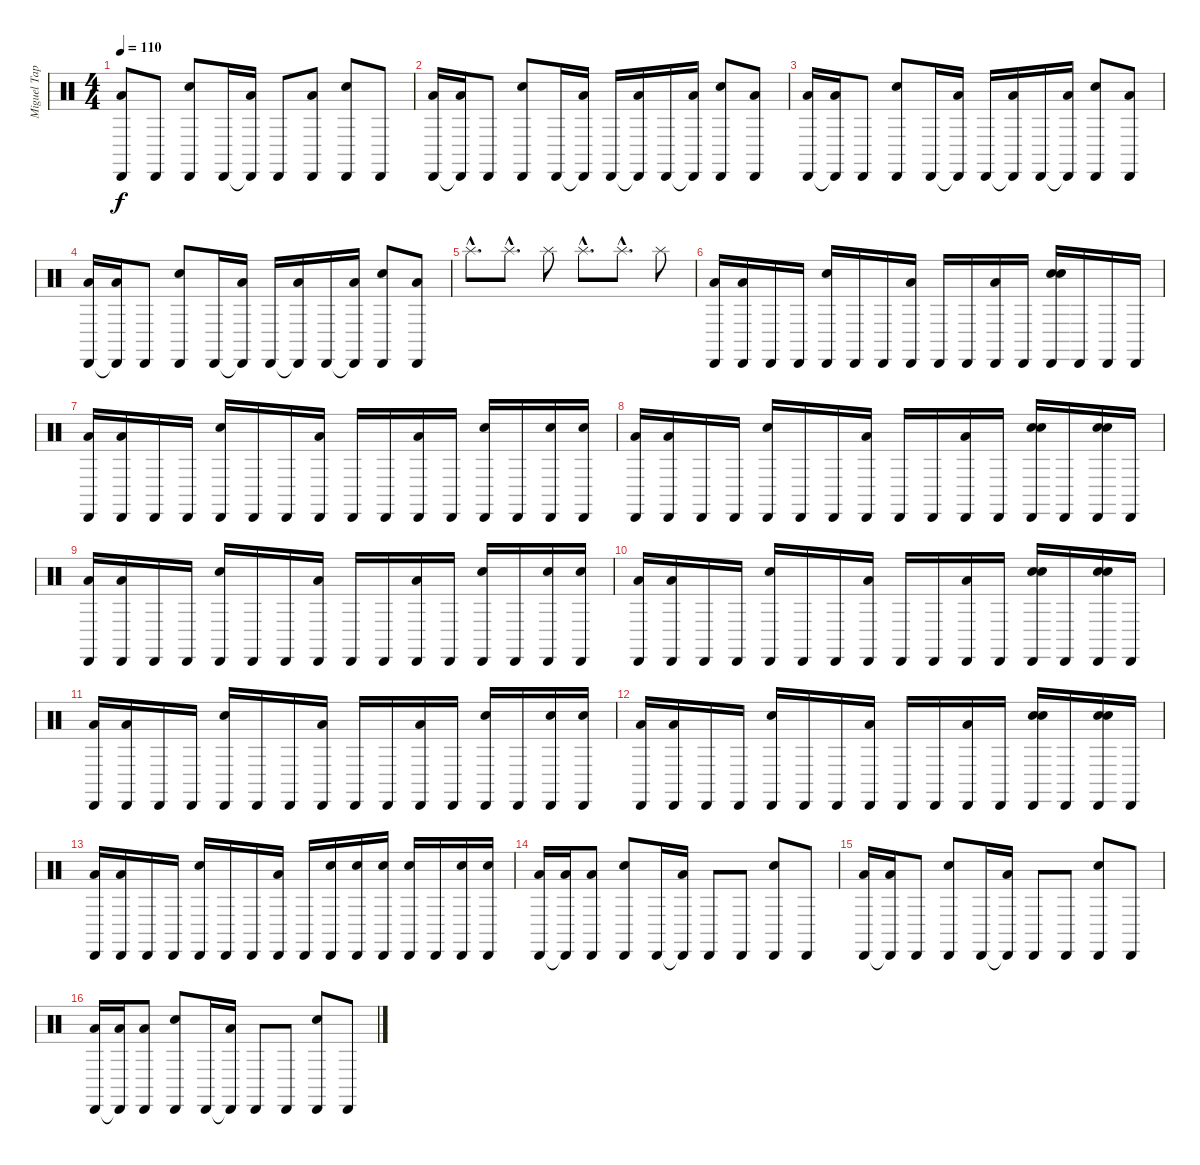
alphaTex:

\track ("Miguel Tapia (Bateria)" "Miguel Tap") {instrument percussion}
\staff {score}
\articulation defaults
\ts (4 4)
\tempo 110
\clef neutral
\ks c
("Cabasa (hit)" "Low Tom (hit)").8{dy f} "Cabasa (hit)".8 ("Cabasa (hit)" "Snare (hit) 2").8 "Cabasa (hit)".16 ("Cabasa (hit)"{t} "Low Tom (hit)").16 "Cabasa (hit)".8 ("Cabasa (hit)" "Low Tom (hit)").8 ("Cabasa (hit)" "Snare (hit) 2").8 "Cabasa (hit)".8 |
("Cabasa (hit)" "Low Tom (hit)").16 ("Cabasa (hit)"{t} "Low Tom (hit)").16 "Cabasa (hit)".8 ("Cabasa (hit)" "Snare (hit) 2").8 "Cabasa (hit)".16 ("Cabasa (hit)"{t} "Low Tom (hit)").16 "Cabasa (hit)".16 ("Cabasa (hit)"{t} "Low Tom (hit)").16 "Cabasa (hit)".16 ("Cabasa (hit)"{t} "Low Tom (hit)").16 ("Cabasa (hit)" "Snare (hit) 2").8 ("Cabasa (hit)" "Low Tom (hit)").8 |
("Cabasa (hit)" "Low Tom (hit)").16 ("Cabasa (hit)"{t} "Low Tom (hit)").16 "Cabasa (hit)".8 ("Cabasa (hit)" "Snare (hit) 2").8 "Cabasa (hit)".16 ("Cabasa (hit)"{t} "Low Tom (hit)").16 "Cabasa (hit)".16 ("Cabasa (hit)"{t} "Low Tom (hit)").16 "Cabasa (hit)".16 ("Cabasa (hit)"{t} "Low Tom (hit)").16 ("Cabasa (hit)" "Snare (hit) 2").8 ("Cabasa (hit)" "Low Tom (hit)").8 |
("Cabasa (hit)" "Low Tom (hit)").16 ("Cabasa (hit)"{t} "Low Tom (hit)").16 "Cabasa (hit)".8 ("Cabasa (hit)" "Snare (hit) 2").8 "Cabasa (hit)".16 ("Cabasa (hit)"{t} "Low Tom (hit)").16 "Cabasa (hit)".16 ("Cabasa (hit)"{t} "Low Tom (hit)").16 "Cabasa (hit)".16 ("Cabasa (hit)"{t} "Low Tom (hit)").16 ("Cabasa (hit)" "Snare (hit) 2").8 ("Cabasa (hit)" "Low Tom (hit)").8 |
"Splash (hit)"{hac}.8{d} "Splash (hit)"{hac}.8{d} "Splash (hit)".8 "Splash (hit)"{hac}.8{d} "Splash (hit)"{hac}.8{d} "Splash (hit)".8 |
("Cabasa (hit)" "Low Tom (hit)").16 ("Cabasa (hit)" "Low Tom (hit)").16 "Cabasa (hit)".16 "Cabasa (hit)".16 ("Cabasa (hit)" "Snare (hit) 2").16 "Cabasa (hit)".16 "Cabasa (hit)".16 ("Cabasa (hit)" "Low Tom (hit)").16 "Cabasa (hit)".16 "Cabasa (hit)".16 ("Cabasa (hit)" "Low Tom (hit)").16 "Cabasa (hit)".16 ("Cabasa (hit)" "Snare (hit) 2" "Electric Snare (hit)").16 "Cabasa (hit)".16 "Cabasa (hit)".16 "Cabasa (hit)".16 |
("Cabasa (hit)" "Low Tom (hit)").16 ("Cabasa (hit)" "Low Tom (hit)").16 "Cabasa (hit)".16 "Cabasa (hit)".16 ("Cabasa (hit)" "Snare (hit) 2").16 "Cabasa (hit)".16 "Cabasa (hit)".16 ("Cabasa (hit)" "Low Tom (hit)").16 "Cabasa (hit)".16 "Cabasa (hit)".16 ("Cabasa (hit)" "Low Tom (hit)").16 "Cabasa (hit)".16 ("Cabasa (hit)" "Snare (hit) 2").16 "Cabasa (hit)".16 ("Cabasa (hit)" "Snare (hit) 2").16 ("Cabasa (hit)" "Snare (hit) 2").16 |
("Cabasa (hit)" "Low Tom (hit)").16 ("Cabasa (hit)" "Low Tom (hit)").16 "Cabasa (hit)".16 "Cabasa (hit)".16 ("Cabasa (hit)" "Snare (hit) 2").16 "Cabasa (hit)".16 "Cabasa (hit)".16 ("Cabasa (hit)" "Low Tom (hit)").16 "Cabasa (hit)".16 "Cabasa (hit)".16 ("Cabasa (hit)" "Low Tom (hit)").16 "Cabasa (hit)".16 ("Cabasa (hit)" "Snare (hit) 2" "Electric Snare (hit)").16 "Cabasa (hit)".16 ("Cabasa (hit)" "Snare (hit) 2" "Electric Snare (hit)").16 "Cabasa (hit)".16 |
("Cabasa (hit)" "Low Tom (hit)").16 ("Cabasa (hit)" "Low Tom (hit)").16 "Cabasa (hit)".16 "Cabasa (hit)".16 ("Cabasa (hit)" "Snare (hit) 2").16 "Cabasa (hit)".16 "Cabasa (hit)".16 ("Cabasa (hit)" "Low Tom (hit)").16 "Cabasa (hit)".16 "Cabasa (hit)".16 ("Cabasa (hit)" "Low Tom (hit)").16 "Cabasa (hit)".16 ("Cabasa (hit)" "Snare (hit) 2").16 "Cabasa (hit)".16 ("Cabasa (hit)" "Snare (hit) 2").16 ("Cabasa (hit)" "Snare (hit) 2").16 |
("Cabasa (hit)" "Low Tom (hit)").16 ("Cabasa (hit)" "Low Tom (hit)").16 "Cabasa (hit)".16 "Cabasa (hit)".16 ("Cabasa (hit)" "Snare (hit) 2").16 "Cabasa (hit)".16 "Cabasa (hit)".16 ("Cabasa (hit)" "Low Tom (hit)").16 "Cabasa (hit)".16 "Cabasa (hit)".16 ("Cabasa (hit)" "Low Tom (hit)").16 "Cabasa (hit)".16 ("Cabasa (hit)" "Snare (hit) 2" "Electric Snare (hit)").16 "Cabasa (hit)".16 ("Cabasa (hit)" "Snare (hit) 2" "Electric Snare (hit)").16 "Cabasa (hit)".16 |
("Cabasa (hit)" "Low Tom (hit)").16 ("Cabasa (hit)" "Low Tom (hit)").16 "Cabasa (hit)".16 "Cabasa (hit)".16 ("Cabasa (hit)" "Snare (hit) 2").16 "Cabasa (hit)".16 "Cabasa (hit)".16 ("Cabasa (hit)" "Low Tom (hit)").16 "Cabasa (hit)".16 "Cabasa (hit)".16 ("Cabasa (hit)" "Low Tom (hit)").16 "Cabasa (hit)".16 ("Cabasa (hit)" "Snare (hit) 2").16 "Cabasa (hit)".16 ("Cabasa (hit)" "Snare (hit) 2").16 ("Cabasa (hit)" "Snare (hit) 2").16 |
("Cabasa (hit)" "Low Tom (hit)").16 ("Cabasa (hit)" "Low Tom (hit)").16 "Cabasa (hit)".16 "Cabasa (hit)".16 ("Cabasa (hit)" "Snare (hit) 2").16 "Cabasa (hit)".16 "Cabasa (hit)".16 ("Cabasa (hit)" "Low Tom (hit)").16 "Cabasa (hit)".16 "Cabasa (hit)".16 ("Cabasa (hit)" "Low Tom (hit)").16 "Cabasa (hit)".16 ("Cabasa (hit)" "Snare (hit) 2" "Electric Snare (hit)").16 "Cabasa (hit)".16 ("Cabasa (hit)" "Snare (hit) 2" "Electric Snare (hit)").16 "Cabasa (hit)".16 |
("Cabasa (hit)" "Low Tom (hit)").16 ("Cabasa (hit)" "Low Tom (hit)").16 "Cabasa (hit)".16 "Cabasa (hit)".16 ("Cabasa (hit)" "Snare (hit) 2").16 "Cabasa (hit)".16 "Cabasa (hit)".16 ("Cabasa (hit)" "Low Tom (hit)").16 "Cabasa (hit)".16 ("Cabasa (hit)" "Snare (hit) 2").16 ("Cabasa (hit)" "Snare (hit) 2").16 ("Cabasa (hit)" "Snare (hit) 2").16 ("Cabasa (hit)" "Snare (hit) 2").16 "Cabasa (hit)".16 ("Cabasa (hit)" "Snare (hit) 2").16 ("Cabasa (hit)" "Snare (hit) 2").16 |
("Cabasa (hit)" "Low Tom (hit)").16 ("Cabasa (hit)"{t} "Low Tom (hit)").16 ("Cabasa (hit)" "Low Tom (hit)").8 ("Cabasa (hit)" "Snare (hit) 2").8 "Cabasa (hit)".16 ("Cabasa (hit)"{t} "Low Tom (hit)").16 "Cabasa (hit)".8 "Cabasa (hit)".8 ("Cabasa (hit)" "Snare (hit) 2").8 "Cabasa (hit)".8 |
("Cabasa (hit)" "Low Tom (hit)").16 ("Cabasa (hit)"{t} "Low Tom (hit)").16 "Cabasa (hit)".8 ("Cabasa (hit)" "Snare (hit) 2").8 "Cabasa (hit)".16 ("Cabasa (hit)"{t} "Low Tom (hit)").16 "Cabasa (hit)".8 "Cabasa (hit)".8 ("Cabasa (hit)" "Snare (hit) 2").8 "Cabasa (hit)".8 |
("Cabasa (hit)" "Low Tom (hit)").16 ("Cabasa (hit)"{t} "Low Tom (hit)").16 ("Cabasa (hit)" "Low Tom (hit)").8 ("Cabasa (hit)" "Snare (hit) 2").8 "Cabasa (hit)".16 ("Cabasa (hit)"{t} "Low Tom (hit)").16 "Cabasa (hit)".8 "Cabasa (hit)".8 ("Cabasa (hit)" "Snare (hit) 2").8 "Cabasa (hit)".8
